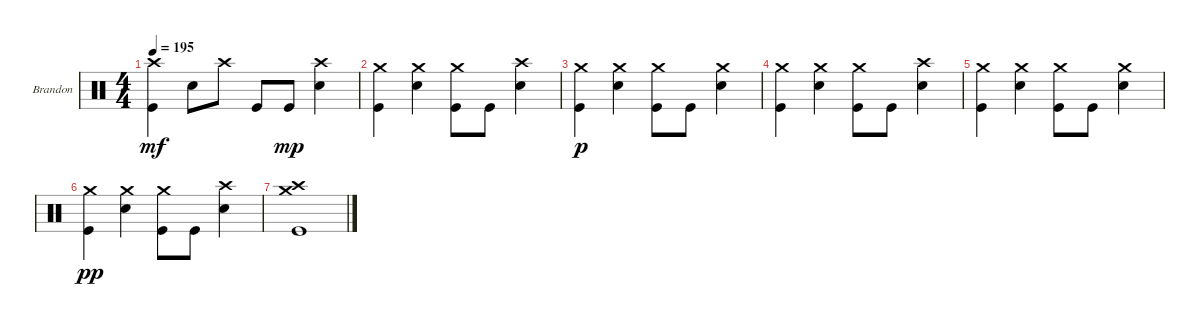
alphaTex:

\defaultSystemsLayout 4
\bracketExtendMode groupsimilarinstruments
\firstSystemTrackNameOrientation horizontal
\otherSystemsTrackNameOrientation horizontal
\track ("Drumkit" "Brandon") {instrument percussion}
\staff {score}
\articulation defaults
\ts (4 4)
\tempo 195
\clef neutral
\scale
0.333333
\ks c
("Kick (hit)" "Crash high (hit)").4{dy mf} "Snare (hit) 2".8 "Crash high (hit)".8 "Kick (hit)".8 "Kick (hit)".8{dy mp} ("Snare (hit) 2" "Crash high (hit)").4 |
\scale
0.333333 ("Kick (hit)" "Crash medium (hit)").4 ("Snare (hit) 2" "Crash medium (hit)").4 ("Kick (hit)" "Crash medium (hit)").8 "Kick (hit)".8 ("Snare (hit) 2" "Crash high (hit)").4 |
\scale
0.333333 ("Kick (hit)" "Crash medium (hit)").4{dy p} ("Snare (hit) 2" "Crash medium (hit)").4 ("Kick (hit)" "Crash medium (hit)").8 "Kick (hit)".8 ("Snare (hit) 2" "Crash medium (hit)").4 |
\scale
0.333333 ("Kick (hit)" "Crash medium (hit)").4 ("Snare (hit) 2" "Crash medium (hit)").4 ("Kick (hit)" "Crash medium (hit)").8 "Kick (hit)".8 ("Snare (hit) 2" "Crash high (hit)").4 |
\scale
0.333333 ("Kick (hit)" "Crash medium (hit)").4 ("Snare (hit) 2" "Crash medium (hit)").4 ("Kick (hit)" "Crash medium (hit)").8 "Kick (hit)".8 ("Snare (hit) 2" "Crash medium (hit)").4 |
\scale
0.333333 ("Kick (hit)" "Crash medium (hit)").4{dy pp} ("Snare (hit) 2" "Crash medium (hit)").4 ("Kick (hit)" "Crash medium (hit)").8 "Kick (hit)".8 ("Snare (hit) 2" "Crash high (hit)").4 |
\scale
0.333333 ("Crash medium (hit)" "Crash high (hit)" "Kick (hit)").1 |
\scale
0.333333 |
\scale
0.333333
